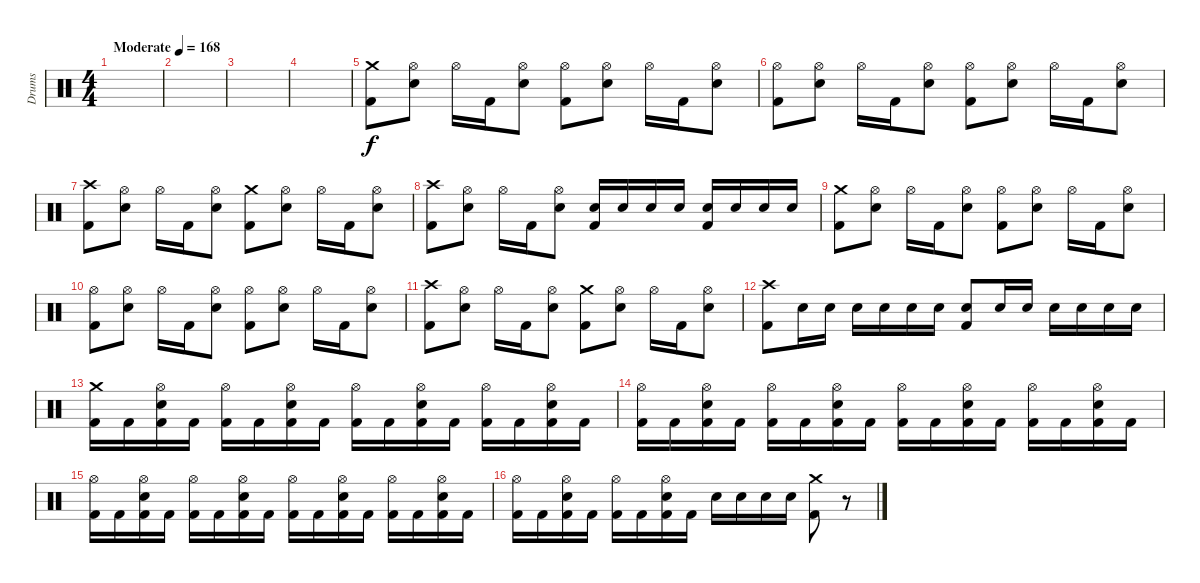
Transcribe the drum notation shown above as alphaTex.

\track ("Drums" "Drums") {instrument percussion}
\staff {score}
\articulation defaults
\ts (4 4)
\tempo (168 "Moderate")
\clef neutral
\ks c
|
|
|
|
("Crash medium (hit)" "Kick (hit) 2").8 ("Hi-Hat (open)" "Electric Snare (hit)").8 "Hi-Hat (open)".16 "Kick (hit) 2".16 ("Hi-Hat (open)" "Electric Snare (hit)").8 ("Hi-Hat (open)" "Kick (hit) 2").8 ("Hi-Hat (open)" "Electric Snare (hit)").8 "Hi-Hat (open)".16 "Kick (hit) 2".16 ("Hi-Hat (open)" "Electric Snare (hit)").8 |
("Hi-Hat (open)" "Kick (hit) 2").8 ("Hi-Hat (open)" "Electric Snare (hit)").8 "Hi-Hat (open)".16 "Kick (hit) 2".16 ("Hi-Hat (open)" "Electric Snare (hit)").8 ("Hi-Hat (open)" "Kick (hit) 2").8 ("Hi-Hat (open)" "Electric Snare (hit)").8 "Hi-Hat (open)".16 "Kick (hit) 2".16 ("Hi-Hat (open)" "Electric Snare (hit)").8 |
("Crash high (hit)" "Kick (hit) 2").8 ("Hi-Hat (open)" "Electric Snare (hit)").8 "Hi-Hat (open)".16 "Kick (hit) 2".16 ("Hi-Hat (open)" "Electric Snare (hit)").8 ("Crash medium (hit)" "Kick (hit) 2").8 ("Hi-Hat (open)" "Electric Snare (hit)").8 "Hi-Hat (open)".16 "Kick (hit) 2".16 ("Hi-Hat (open)" "Electric Snare (hit)").8 |
("Crash high (hit)" "Kick (hit) 2").8 ("Hi-Hat (open)" "Electric Snare (hit)").8 "Hi-Hat (open)".16 "Kick (hit) 2".16 ("Hi-Hat (open)" "Electric Snare (hit)").8 ("Electric Snare (hit)" "Kick (hit) 2").16 "Electric Snare (hit)".16 "Electric Snare (hit)".16 "Electric Snare (hit)".16 ("Electric Snare (hit)" "Kick (hit) 2").16 "Electric Snare (hit)".16 "Electric Snare (hit)".16 "Electric Snare (hit)".16 |
("Crash medium (hit)" "Kick (hit) 2").8 ("Hi-Hat (open)" "Electric Snare (hit)").8 "Hi-Hat (open)".16 "Kick (hit) 2".16 ("Hi-Hat (open)" "Electric Snare (hit)").8 ("Hi-Hat (open)" "Kick (hit) 2").8 ("Hi-Hat (open)" "Electric Snare (hit)").8 "Hi-Hat (open)".16 "Kick (hit) 2".16 ("Hi-Hat (open)" "Electric Snare (hit)").8 |
("Hi-Hat (open)" "Kick (hit) 2").8 ("Hi-Hat (open)" "Electric Snare (hit)").8 "Hi-Hat (open)".16 "Kick (hit) 2".16 ("Hi-Hat (open)" "Electric Snare (hit)").8 ("Hi-Hat (open)" "Kick (hit) 2").8 ("Hi-Hat (open)" "Electric Snare (hit)").8 "Hi-Hat (open)".16 "Kick (hit) 2".16 ("Hi-Hat (open)" "Electric Snare (hit)").8 |
("Crash high (hit)" "Kick (hit) 2").8 ("Hi-Hat (open)" "Electric Snare (hit)").8 "Hi-Hat (open)".16 "Kick (hit) 2".16 ("Hi-Hat (open)" "Electric Snare (hit)").8 ("Crash medium (hit)" "Kick (hit) 2").8 ("Hi-Hat (open)" "Electric Snare (hit)").8 "Hi-Hat (open)".16 "Kick (hit) 2".16 ("Hi-Hat (open)" "Electric Snare (hit)").8 |
("Crash high (hit)" "Kick (hit) 2").8 "Electric Snare (hit)".16 "Electric Snare (hit)".16 "Electric Snare (hit)".16 "Electric Snare (hit)".16 "Electric Snare (hit)".16 "Electric Snare (hit)".16 ("Electric Snare (hit)" "Kick (hit) 2").8 "Electric Snare (hit)".16 "Electric Snare (hit)".16 "Electric Snare (hit)".16 "Electric Snare (hit)".16 "Electric Snare (hit)".16 "Electric Snare (hit)".16 |
("Crash medium (hit)" "Kick (hit) 2").16 "Kick (hit) 2".16 ("Hi-Hat (open)" "Electric Snare (hit)" "Kick (hit) 2").16 "Kick (hit) 2".16 ("Hi-Hat (open)" "Kick (hit) 2").16 "Kick (hit) 2".16 ("Hi-Hat (open)" "Electric Snare (hit)" "Kick (hit) 2").16 "Kick (hit) 2".16 ("Hi-Hat (open)" "Kick (hit) 2").16 "Kick (hit) 2".16 ("Hi-Hat (open)" "Electric Snare (hit)" "Kick (hit) 2").16 "Kick (hit) 2".16 ("Hi-Hat (open)" "Kick (hit) 2").16 "Kick (hit) 2".16 ("Hi-Hat (open)" "Electric Snare (hit)" "Kick (hit) 2").16 "Kick (hit) 2".16 |
("Hi-Hat (open)" "Kick (hit) 2").16 "Kick (hit) 2".16 ("Hi-Hat (open)" "Electric Snare (hit)" "Kick (hit) 2").16 "Kick (hit) 2".16 ("Hi-Hat (open)" "Kick (hit) 2").16 "Kick (hit) 2".16 ("Hi-Hat (open)" "Electric Snare (hit)" "Kick (hit) 2").16 "Kick (hit) 2".16 ("Hi-Hat (open)" "Kick (hit) 2").16 "Kick (hit) 2".16 ("Hi-Hat (open)" "Electric Snare (hit)" "Kick (hit) 2").16 "Kick (hit) 2".16 ("Hi-Hat (open)" "Kick (hit) 2").16 "Kick (hit) 2".16 ("Hi-Hat (open)" "Electric Snare (hit)" "Kick (hit) 2").16 "Kick (hit) 2".16 |
("Hi-Hat (open)" "Kick (hit) 2").16 "Kick (hit) 2".16 ("Hi-Hat (open)" "Electric Snare (hit)" "Kick (hit) 2").16 "Kick (hit) 2".16 ("Hi-Hat (open)" "Kick (hit) 2").16 "Kick (hit) 2".16 ("Hi-Hat (open)" "Electric Snare (hit)" "Kick (hit) 2").16 "Kick (hit) 2".16 ("Hi-Hat (open)" "Kick (hit) 2").16 "Kick (hit) 2".16 ("Hi-Hat (open)" "Electric Snare (hit)" "Kick (hit) 2").16 "Kick (hit) 2".16 ("Hi-Hat (open)" "Kick (hit) 2").16 "Kick (hit) 2".16 ("Hi-Hat (open)" "Electric Snare (hit)" "Kick (hit) 2").16 "Kick (hit) 2".16 |
("Hi-Hat (open)" "Kick (hit) 2").16 "Kick (hit) 2".16 ("Hi-Hat (open)" "Electric Snare (hit)" "Kick (hit) 2").16 "Kick (hit) 2".16 ("Hi-Hat (open)" "Kick (hit) 2").16 "Kick (hit) 2".16 ("Hi-Hat (open)" "Electric Snare (hit)" "Kick (hit) 2").16 "Kick (hit) 2".16 "Electric Snare (hit)".16 "Electric Snare (hit)".16 "Electric Snare (hit)".16 "Electric Snare (hit)".16 ("Crash medium (hit)" "Kick (hit) 2").8 r.8{volume 0}
